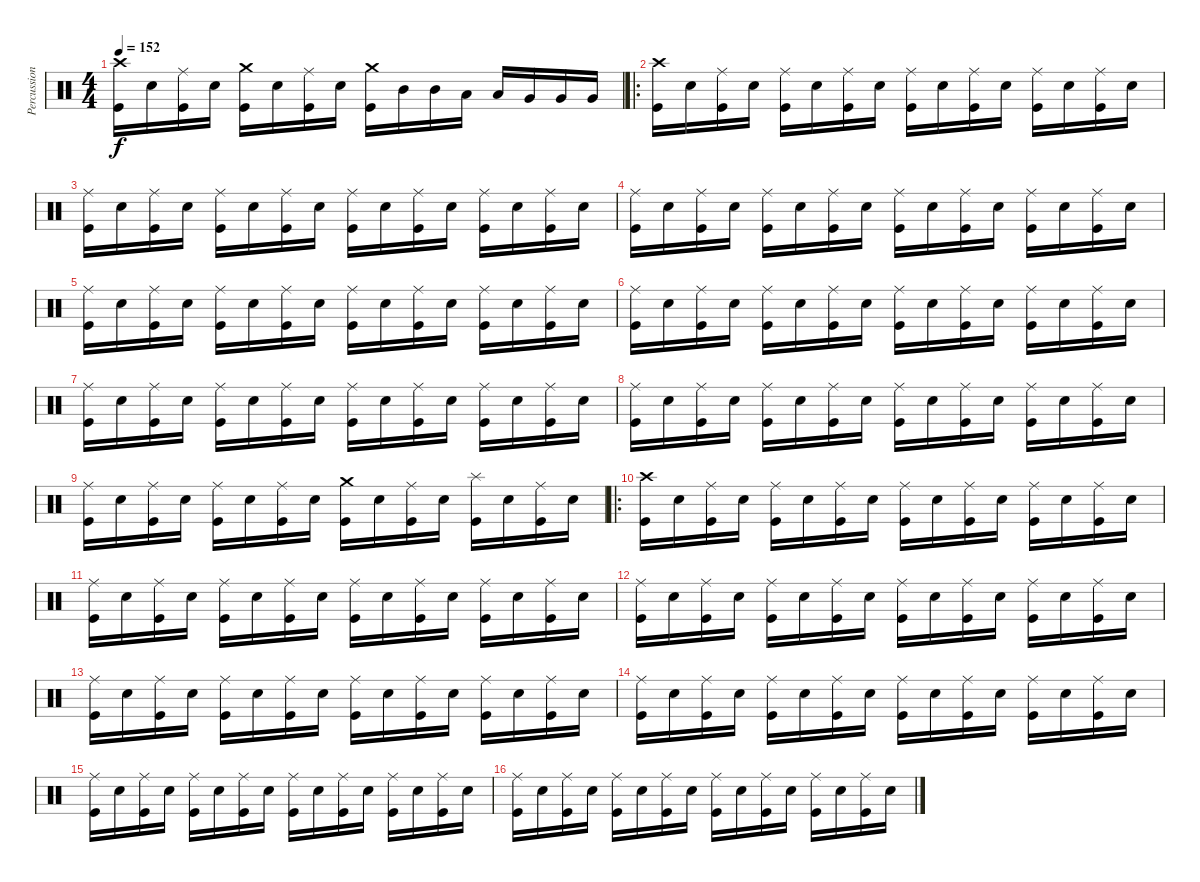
\track ("Percussion" "Percussion") {instrument percussion}
\staff {score}
\articulation defaults
\ts (4 4)
\tempo 152
\clef neutral
\ks c
("Crash high (hit)" "Kick (hit)").16{dy f} "Snare (hit) 2".16 ("Ride (middle)" "Kick (hit)").16 "Snare (hit) 2".16 ("Crash medium (hit)" "Kick (hit)").16 "Snare (hit) 2".16 ("Ride (middle)" "Kick (hit)").16 "Snare (hit) 2".16 ("Crash medium (hit)" "Kick (hit)").16 "Mid Tom (hit)".16 "Mid Tom (hit)".16 "Low Tom (hit)".16 "Low Tom (hit)".16 "Very Low Tom (hit)".16 "Very Low Tom (hit)".16 "Very Low Tom (hit)".16 |
\ro
("Crash high (hit)" "Kick (hit)").16 "Snare (hit) 2".16 ("Ride (middle)" "Kick (hit)").16 "Snare (hit) 2".16 ("Ride (middle)" "Kick (hit)").16 "Snare (hit) 2".16 ("Ride (middle)" "Kick (hit)").16 "Snare (hit) 2".16 ("Ride (middle)" "Kick (hit)").16 "Snare (hit) 2".16 ("Ride (middle)" "Kick (hit)").16 "Snare (hit) 2".16 ("Ride (middle)" "Kick (hit)").16 "Snare (hit) 2".16 ("Ride (middle)" "Kick (hit)").16 "Snare (hit) 2".16 |
("Ride (middle)" "Kick (hit)").16 "Snare (hit) 2".16 ("Ride (middle)" "Kick (hit)").16 "Snare (hit) 2".16 ("Ride (middle)" "Kick (hit)").16 "Snare (hit) 2".16 ("Ride (middle)" "Kick (hit)").16 "Snare (hit) 2".16 ("Ride (middle)" "Kick (hit)").16 "Snare (hit) 2".16 ("Ride (middle)" "Kick (hit)").16 "Snare (hit) 2".16 ("Ride (middle)" "Kick (hit)").16 "Snare (hit) 2".16 ("Ride (middle)" "Kick (hit)").16 "Snare (hit) 2".16 |
("Ride (middle)" "Kick (hit)").16 "Snare (hit) 2".16 ("Ride (middle)" "Kick (hit)").16 "Snare (hit) 2".16 ("Ride (middle)" "Kick (hit)").16 "Snare (hit) 2".16 ("Ride (middle)" "Kick (hit)").16 "Snare (hit) 2".16 ("Ride (middle)" "Kick (hit)").16 "Snare (hit) 2".16 ("Ride (middle)" "Kick (hit)").16 "Snare (hit) 2".16 ("Ride (middle)" "Kick (hit)").16 "Snare (hit) 2".16 ("Ride (middle)" "Kick (hit)").16 "Snare (hit) 2".16 |
("Ride (middle)" "Kick (hit)").16 "Snare (hit) 2".16 ("Ride (middle)" "Kick (hit)").16 "Snare (hit) 2".16 ("Ride (middle)" "Kick (hit)").16 "Snare (hit) 2".16 ("Ride (middle)" "Kick (hit)").16 "Snare (hit) 2".16 ("Ride (middle)" "Kick (hit)").16 "Snare (hit) 2".16 ("Ride (middle)" "Kick (hit)").16 "Snare (hit) 2".16 ("Ride (middle)" "Kick (hit)").16 "Snare (hit) 2".16 ("Ride (middle)" "Kick (hit)").16 "Snare (hit) 2".16 |
("Ride (middle)" "Kick (hit)").16 "Snare (hit) 2".16 ("Ride (middle)" "Kick (hit)").16 "Snare (hit) 2".16 ("Ride (middle)" "Kick (hit)").16 "Snare (hit) 2".16 ("Ride (middle)" "Kick (hit)").16 "Snare (hit) 2".16 ("Ride (middle)" "Kick (hit)").16 "Snare (hit) 2".16 ("Ride (middle)" "Kick (hit)").16 "Snare (hit) 2".16 ("Ride (middle)" "Kick (hit)").16 "Snare (hit) 2".16 ("Ride (middle)" "Kick (hit)").16 "Snare (hit) 2".16 |
("Ride (middle)" "Kick (hit)").16 "Snare (hit) 2".16 ("Ride (middle)" "Kick (hit)").16 "Snare (hit) 2".16 ("Ride (middle)" "Kick (hit)").16 "Snare (hit) 2".16 ("Ride (middle)" "Kick (hit)").16 "Snare (hit) 2".16 ("Ride (middle)" "Kick (hit)").16 "Snare (hit) 2".16 ("Ride (middle)" "Kick (hit)").16 "Snare (hit) 2".16 ("Ride (middle)" "Kick (hit)").16 "Snare (hit) 2".16 ("Ride (middle)" "Kick (hit)").16 "Snare (hit) 2".16 |
("Ride (middle)" "Kick (hit)").16 "Snare (hit) 2".16 ("Ride (middle)" "Kick (hit)").16 "Snare (hit) 2".16 ("Ride (middle)" "Kick (hit)").16 "Snare (hit) 2".16 ("Ride (middle)" "Kick (hit)").16 "Snare (hit) 2".16 ("Ride (middle)" "Kick (hit)").16 "Snare (hit) 2".16 ("Ride (middle)" "Kick (hit)").16 "Snare (hit) 2".16 ("Ride (middle)" "Kick (hit)").16 "Snare (hit) 2".16 ("Ride (middle)" "Kick (hit)").16 "Snare (hit) 2".16 |
("Ride (middle)" "Kick (hit)").16 "Snare (hit) 2".16 ("Ride (middle)" "Kick (hit)").16 "Snare (hit) 2".16 ("Ride (middle)" "Kick (hit)").16 "Snare (hit) 2".16 ("Ride (middle)" "Kick (hit)").16 "Snare (hit) 2".16 ("Crash medium (hit)" "Kick (hit)").16 "Snare (hit) 2".16 ("Ride (middle)" "Kick (hit)").16 "Snare (hit) 2".16 ("Splash (hit)" "Kick (hit)").16 "Snare (hit) 2".16 ("Ride (middle)" "Kick (hit)").16 "Snare (hit) 2".16 |
\ro
("Crash high (hit)" "Kick (hit)").16 "Snare (hit) 2".16 ("Ride (middle)" "Kick (hit)").16 "Snare (hit) 2".16 ("Ride (middle)" "Kick (hit)").16 "Snare (hit) 2".16 ("Ride (middle)" "Kick (hit)").16 "Snare (hit) 2".16 ("Ride (middle)" "Kick (hit)").16 "Snare (hit) 2".16 ("Ride (middle)" "Kick (hit)").16 "Snare (hit) 2".16 ("Ride (middle)" "Kick (hit)").16 "Snare (hit) 2".16 ("Ride (middle)" "Kick (hit)").16 "Snare (hit) 2".16 |
("Ride (middle)" "Kick (hit)").16 "Snare (hit) 2".16 ("Ride (middle)" "Kick (hit)").16 "Snare (hit) 2".16 ("Ride (middle)" "Kick (hit)").16 "Snare (hit) 2".16 ("Ride (middle)" "Kick (hit)").16 "Snare (hit) 2".16 ("Ride (middle)" "Kick (hit)").16 "Snare (hit) 2".16 ("Ride (middle)" "Kick (hit)").16 "Snare (hit) 2".16 ("Ride (middle)" "Kick (hit)").16 "Snare (hit) 2".16 ("Ride (middle)" "Kick (hit)").16 "Snare (hit) 2".16 |
("Ride (middle)" "Kick (hit)").16 "Snare (hit) 2".16 ("Ride (middle)" "Kick (hit)").16 "Snare (hit) 2".16 ("Ride (middle)" "Kick (hit)").16 "Snare (hit) 2".16 ("Ride (middle)" "Kick (hit)").16 "Snare (hit) 2".16 ("Ride (middle)" "Kick (hit)").16 "Snare (hit) 2".16 ("Ride (middle)" "Kick (hit)").16 "Snare (hit) 2".16 ("Ride (middle)" "Kick (hit)").16 "Snare (hit) 2".16 ("Ride (middle)" "Kick (hit)").16 "Snare (hit) 2".16 |
("Ride (middle)" "Kick (hit)").16 "Snare (hit) 2".16 ("Ride (middle)" "Kick (hit)").16 "Snare (hit) 2".16 ("Ride (middle)" "Kick (hit)").16 "Snare (hit) 2".16 ("Ride (middle)" "Kick (hit)").16 "Snare (hit) 2".16 ("Ride (middle)" "Kick (hit)").16 "Snare (hit) 2".16 ("Ride (middle)" "Kick (hit)").16 "Snare (hit) 2".16 ("Ride (middle)" "Kick (hit)").16 "Snare (hit) 2".16 ("Ride (middle)" "Kick (hit)").16 "Snare (hit) 2".16 |
("Ride (middle)" "Kick (hit)").16 "Snare (hit) 2".16 ("Ride (middle)" "Kick (hit)").16 "Snare (hit) 2".16 ("Ride (middle)" "Kick (hit)").16 "Snare (hit) 2".16 ("Ride (middle)" "Kick (hit)").16 "Snare (hit) 2".16 ("Ride (middle)" "Kick (hit)").16 "Snare (hit) 2".16 ("Ride (middle)" "Kick (hit)").16 "Snare (hit) 2".16 ("Ride (middle)" "Kick (hit)").16 "Snare (hit) 2".16 ("Ride (middle)" "Kick (hit)").16 "Snare (hit) 2".16 |
("Ride (middle)" "Kick (hit)").16 "Snare (hit) 2".16 ("Ride (middle)" "Kick (hit)").16 "Snare (hit) 2".16 ("Ride (middle)" "Kick (hit)").16 "Snare (hit) 2".16 ("Ride (middle)" "Kick (hit)").16 "Snare (hit) 2".16 ("Ride (middle)" "Kick (hit)").16 "Snare (hit) 2".16 ("Ride (middle)" "Kick (hit)").16 "Snare (hit) 2".16 ("Ride (middle)" "Kick (hit)").16 "Snare (hit) 2".16 ("Ride (middle)" "Kick (hit)").16 "Snare (hit) 2".16 |
("Ride (middle)" "Kick (hit)").16 "Snare (hit) 2".16 ("Ride (middle)" "Kick (hit)").16 "Snare (hit) 2".16 ("Ride (middle)" "Kick (hit)").16 "Snare (hit) 2".16 ("Ride (middle)" "Kick (hit)").16 "Snare (hit) 2".16 ("Ride (middle)" "Kick (hit)").16 "Snare (hit) 2".16 ("Ride (middle)" "Kick (hit)").16 "Snare (hit) 2".16 ("Ride (middle)" "Kick (hit)").16 "Snare (hit) 2".16 ("Ride (middle)" "Kick (hit)").16 "Snare (hit) 2".16
